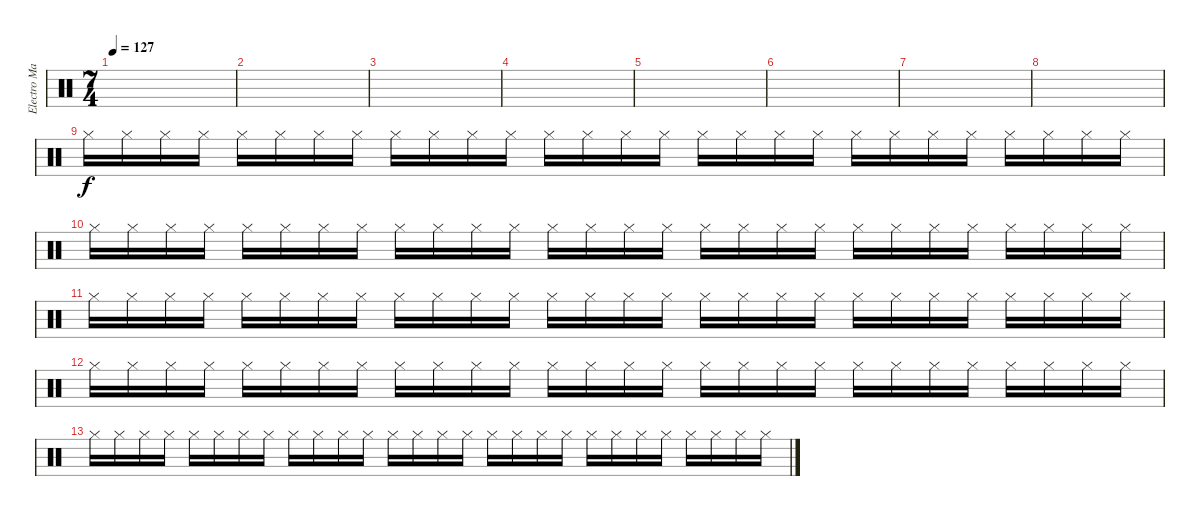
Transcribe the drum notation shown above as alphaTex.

\track ("Electro Mastelotto" "Electro Ma") {instrument percussion}
\staff {score}
\articulation defaults
\ts (7 4)
\tempo 127
\clef neutral
\ks c
|
|
|
|
|
|
|
|
"Hi-Hat (closed)".16 "Hi-Hat (closed)".16 "Hi-Hat (closed)".16 "Hi-Hat (closed)".16 "Hi-Hat (closed)".16 "Hi-Hat (closed)".16 "Hi-Hat (closed)".16 "Hi-Hat (closed)".16 "Hi-Hat (closed)".16 "Hi-Hat (closed)".16 "Hi-Hat (closed)".16 "Hi-Hat (closed)".16 "Hi-Hat (closed)".16 "Hi-Hat (closed)".16 "Hi-Hat (closed)".16 "Hi-Hat (closed)".16 "Hi-Hat (closed)".16 "Hi-Hat (closed)".16 "Hi-Hat (closed)".16 "Hi-Hat (closed)".16 "Hi-Hat (closed)".16 "Hi-Hat (closed)".16 "Hi-Hat (closed)".16 "Hi-Hat (closed)".16 "Hi-Hat (closed)".16 "Hi-Hat (closed)".16 "Hi-Hat (closed)".16 "Hi-Hat (closed)".16 |
"Hi-Hat (closed)".16 "Hi-Hat (closed)".16 "Hi-Hat (closed)".16 "Hi-Hat (closed)".16 "Hi-Hat (closed)".16 "Hi-Hat (closed)".16 "Hi-Hat (closed)".16 "Hi-Hat (closed)".16 "Hi-Hat (closed)".16 "Hi-Hat (closed)".16 "Hi-Hat (closed)".16 "Hi-Hat (closed)".16 "Hi-Hat (closed)".16 "Hi-Hat (closed)".16 "Hi-Hat (closed)".16 "Hi-Hat (closed)".16 "Hi-Hat (closed)".16 "Hi-Hat (closed)".16 "Hi-Hat (closed)".16 "Hi-Hat (closed)".16 "Hi-Hat (closed)".16 "Hi-Hat (closed)".16 "Hi-Hat (closed)".16 "Hi-Hat (closed)".16 "Hi-Hat (closed)".16 "Hi-Hat (closed)".16 "Hi-Hat (closed)".16 "Hi-Hat (closed)".16 |
"Hi-Hat (closed)".16 "Hi-Hat (closed)".16 "Hi-Hat (closed)".16 "Hi-Hat (closed)".16 "Hi-Hat (closed)".16 "Hi-Hat (closed)".16 "Hi-Hat (closed)".16 "Hi-Hat (closed)".16 "Hi-Hat (closed)".16 "Hi-Hat (closed)".16 "Hi-Hat (closed)".16 "Hi-Hat (closed)".16 "Hi-Hat (closed)".16 "Hi-Hat (closed)".16 "Hi-Hat (closed)".16 "Hi-Hat (closed)".16 "Hi-Hat (closed)".16 "Hi-Hat (closed)".16 "Hi-Hat (closed)".16 "Hi-Hat (closed)".16 "Hi-Hat (closed)".16 "Hi-Hat (closed)".16 "Hi-Hat (closed)".16 "Hi-Hat (closed)".16 "Hi-Hat (closed)".16 "Hi-Hat (closed)".16 "Hi-Hat (closed)".16 "Hi-Hat (closed)".16 |
"Hi-Hat (closed)".16 "Hi-Hat (closed)".16 "Hi-Hat (closed)".16 "Hi-Hat (closed)".16 "Hi-Hat (closed)".16 "Hi-Hat (closed)".16 "Hi-Hat (closed)".16 "Hi-Hat (closed)".16 "Hi-Hat (closed)".16 "Hi-Hat (closed)".16 "Hi-Hat (closed)".16 "Hi-Hat (closed)".16 "Hi-Hat (closed)".16 "Hi-Hat (closed)".16 "Hi-Hat (closed)".16 "Hi-Hat (closed)".16 "Hi-Hat (closed)".16 "Hi-Hat (closed)".16 "Hi-Hat (closed)".16 "Hi-Hat (closed)".16 "Hi-Hat (closed)".16 "Hi-Hat (closed)".16 "Hi-Hat (closed)".16 "Hi-Hat (closed)".16 "Hi-Hat (closed)".16 "Hi-Hat (closed)".16 "Hi-Hat (closed)".16 "Hi-Hat (closed)".16 |
"Hi-Hat (closed)".16 "Hi-Hat (closed)".16 "Hi-Hat (closed)".16 "Hi-Hat (closed)".16 "Hi-Hat (closed)".16 "Hi-Hat (closed)".16 "Hi-Hat (closed)".16 "Hi-Hat (closed)".16 "Hi-Hat (closed)".16 "Hi-Hat (closed)".16 "Hi-Hat (closed)".16 "Hi-Hat (closed)".16 "Hi-Hat (closed)".16 "Hi-Hat (closed)".16 "Hi-Hat (closed)".16 "Hi-Hat (closed)".16 "Hi-Hat (closed)".16 "Hi-Hat (closed)".16 "Hi-Hat (closed)".16 "Hi-Hat (closed)".16 "Hi-Hat (closed)".16 "Hi-Hat (closed)".16 "Hi-Hat (closed)".16 "Hi-Hat (closed)".16 "Hi-Hat (closed)".16 "Hi-Hat (closed)".16 "Hi-Hat (closed)".16 "Hi-Hat (closed)".16
